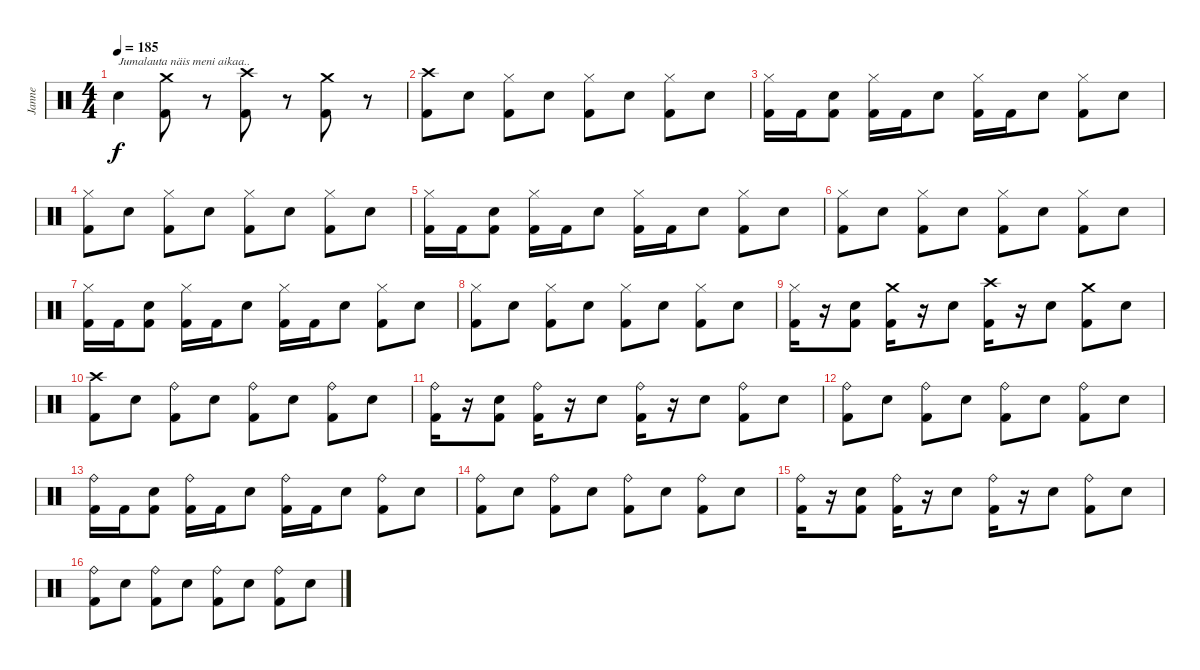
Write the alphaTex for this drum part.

\track ("Janne" "Janne") {instrument percussion}
\staff {score}
\articulation defaults
\ts (4 4)
\tempo 185
\clef neutral
\ks c "Electric Snare (hit)".4{txt "Jumalauta näis meni aikaa.." dy f}
("Crash medium (hit)" "Kick (hit) 2").8 r.8 ("Crash high (hit)" "Kick (hit) 2").8 r.8 ("Crash medium (hit)" "Kick (hit) 2").8 r.8 |
("Crash high (hit)" "Kick (hit) 2").8 "Electric Snare (hit)".8 ("Hi-Hat (closed)" "Kick (hit) 2").8 "Electric Snare (hit)".8 ("Hi-Hat (closed)" "Kick (hit) 2").8 "Electric Snare (hit)".8 ("Hi-Hat (closed)" "Kick (hit) 2").8 "Electric Snare (hit)".8 |
("Hi-Hat (closed)" "Kick (hit) 2").16 "Kick (hit) 2".16 ("Electric Snare (hit)" "Kick (hit) 2").8 ("Hi-Hat (closed)" "Kick (hit) 2").16 "Kick (hit) 2".16 "Electric Snare (hit)".8 ("Hi-Hat (closed)" "Kick (hit) 2").16 "Kick (hit) 2".16 "Electric Snare (hit)".8 ("Hi-Hat (closed)" "Kick (hit) 2").8 "Electric Snare (hit)".8 |
("Hi-Hat (closed)" "Kick (hit) 2").8 "Electric Snare (hit)".8 ("Hi-Hat (closed)" "Kick (hit) 2").8 "Electric Snare (hit)".8 ("Hi-Hat (closed)" "Kick (hit) 2").8 "Electric Snare (hit)".8 ("Hi-Hat (closed)" "Kick (hit) 2").8 "Electric Snare (hit)".8 |
("Hi-Hat (closed)" "Kick (hit) 2").16 "Kick (hit) 2".16 ("Electric Snare (hit)" "Kick (hit) 2").8 ("Hi-Hat (closed)" "Kick (hit) 2").16 "Kick (hit) 2".16 "Electric Snare (hit)".8 ("Hi-Hat (closed)" "Kick (hit) 2").16 "Kick (hit) 2".16 "Electric Snare (hit)".8 ("Hi-Hat (closed)" "Kick (hit) 2").8 "Electric Snare (hit)".8 |
("Hi-Hat (closed)" "Kick (hit) 2").8 "Electric Snare (hit)".8 ("Hi-Hat (closed)" "Kick (hit) 2").8 "Electric Snare (hit)".8 ("Hi-Hat (closed)" "Kick (hit) 2").8 "Electric Snare (hit)".8 ("Hi-Hat (closed)" "Kick (hit) 2").8 "Electric Snare (hit)".8 |
("Hi-Hat (closed)" "Kick (hit) 2").16 "Kick (hit) 2".16 ("Electric Snare (hit)" "Kick (hit) 2").8 ("Hi-Hat (closed)" "Kick (hit) 2").16 "Kick (hit) 2".16 "Electric Snare (hit)".8 ("Hi-Hat (closed)" "Kick (hit) 2").16 "Kick (hit) 2".16 "Electric Snare (hit)".8 ("Hi-Hat (closed)" "Kick (hit) 2").8 "Electric Snare (hit)".8 |
("Hi-Hat (closed)" "Kick (hit) 2").8 "Electric Snare (hit)".8 ("Hi-Hat (closed)" "Kick (hit) 2").8 "Electric Snare (hit)".8 ("Hi-Hat (closed)" "Kick (hit) 2").8 "Electric Snare (hit)".8 ("Hi-Hat (closed)" "Kick (hit) 2").8 "Electric Snare (hit)".8 |
("Hi-Hat (closed)" "Kick (hit) 2").16 r.16 ("Electric Snare (hit)" "Kick (hit) 2").8 ("Crash medium (hit)" "Kick (hit) 2").16 r.16 "Electric Snare (hit)".8 ("Crash high (hit)" "Kick (hit) 2").16 r.16 "Electric Snare (hit)".8 ("Crash medium (hit)" "Kick (hit) 2").8 "Electric Snare (hit)".8 |
("Crash high (hit)" "Kick (hit) 2").8 "Electric Snare (hit)".8 ("Ride (bell)" "Kick (hit) 2").8 "Electric Snare (hit)".8 ("Ride (bell)" "Kick (hit) 2").8 "Electric Snare (hit)".8 ("Ride (bell)" "Kick (hit) 2").8 "Electric Snare (hit)".8 |
("Ride (bell)" "Kick (hit) 2").16 r.16 ("Electric Snare (hit)" "Kick (hit) 2").8 ("Ride (bell)" "Kick (hit) 2").16 r.16 "Electric Snare (hit)".8 ("Ride (bell)" "Kick (hit) 2").16 r.16 "Electric Snare (hit)".8 ("Ride (bell)" "Kick (hit) 2").8 "Electric Snare (hit)".8 |
("Ride (bell)" "Kick (hit) 2").8 "Electric Snare (hit)".8 ("Ride (bell)" "Kick (hit) 2").8 "Electric Snare (hit)".8 ("Ride (bell)" "Kick (hit) 2").8 "Electric Snare (hit)".8 ("Ride (bell)" "Kick (hit) 2").8 "Electric Snare (hit)".8 |
("Ride (bell)" "Kick (hit) 2").16 "Kick (hit) 2".16 ("Electric Snare (hit)" "Kick (hit) 2").8 ("Ride (bell)" "Kick (hit) 2").16 "Kick (hit) 2".16 "Electric Snare (hit)".8 ("Ride (bell)" "Kick (hit) 2").16 "Kick (hit) 2".16 "Electric Snare (hit)".8 ("Ride (bell)" "Kick (hit) 2").8 "Electric Snare (hit)".8 |
("Ride (bell)" "Kick (hit) 2").8 "Electric Snare (hit)".8 ("Ride (bell)" "Kick (hit) 2").8 "Electric Snare (hit)".8 ("Ride (bell)" "Kick (hit) 2").8 "Electric Snare (hit)".8 ("Ride (bell)" "Kick (hit) 2").8 "Electric Snare (hit)".8 |
("Ride (bell)" "Kick (hit) 2").16 r.16 ("Electric Snare (hit)" "Kick (hit) 2").8 ("Ride (bell)" "Kick (hit) 2").16 r.16 "Electric Snare (hit)".8 ("Ride (bell)" "Kick (hit) 2").16 r.16 "Electric Snare (hit)".8 ("Ride (bell)" "Kick (hit) 2").8 "Electric Snare (hit)".8 |
("Ride (bell)" "Kick (hit) 2").8 "Electric Snare (hit)".8 ("Ride (bell)" "Kick (hit) 2").8 "Electric Snare (hit)".8 ("Ride (bell)" "Kick (hit) 2").8 "Electric Snare (hit)".8 ("Ride (bell)" "Kick (hit) 2").8 "Electric Snare (hit)".8
